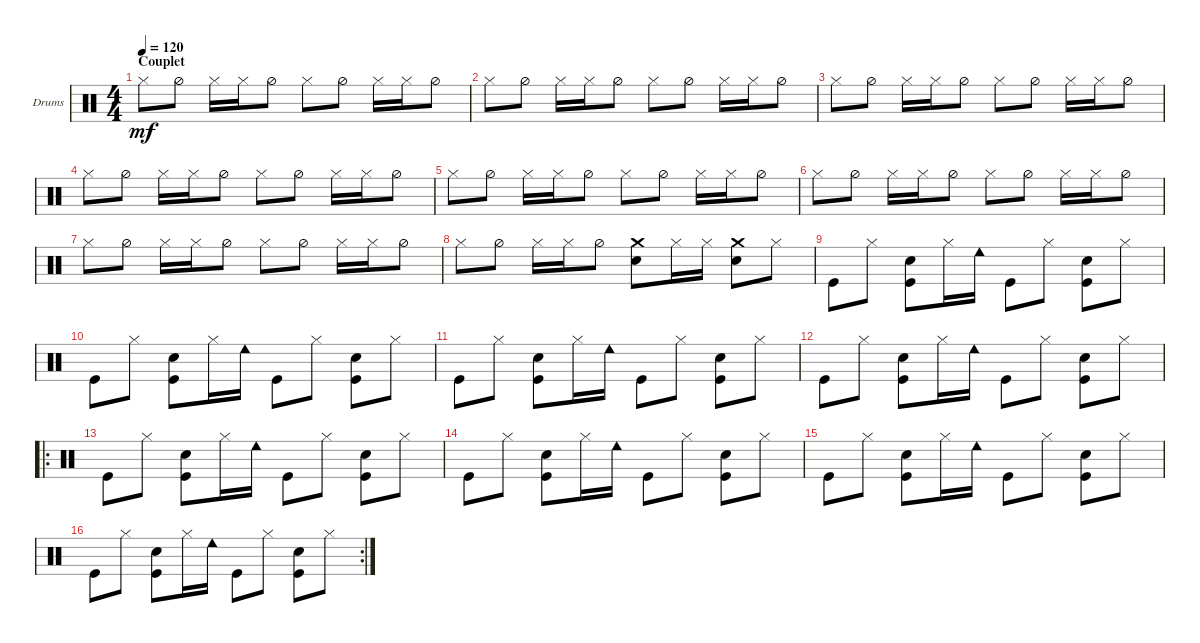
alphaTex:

\defaultSystemsLayout 4
\bracketExtendMode groupsimilarinstruments
\firstSystemTrackNameOrientation horizontal
\otherSystemsTrackNameOrientation horizontal
\track ("Drumkit" "Drums") {instrument percussion}
\staff {score}
\articulation defaults
\ts (4 4)
\section ("" "Couplet")
\tempo 120
\clef neutral
\ks c "Hi-Hat (closed)".8{dy mf} "Hi-Hat (half)".8 "Hi-Hat (closed)".16 "Hi-Hat (closed)".16 "Hi-Hat (half)".8 "Hi-Hat (closed)".8 "Hi-Hat (half)".8 "Hi-Hat (closed)".16 "Hi-Hat (closed)".16 "Hi-Hat (half)".8
|
"Hi-Hat (closed)".8 "Hi-Hat (half)".8 "Hi-Hat (closed)".16 "Hi-Hat (closed)".16 "Hi-Hat (half)".8 "Hi-Hat (closed)".8 "Hi-Hat (half)".8 "Hi-Hat (closed)".16 "Hi-Hat (closed)".16 "Hi-Hat (half)".8 |
"Hi-Hat (closed)".8 "Hi-Hat (half)".8 "Hi-Hat (closed)".16 "Hi-Hat (closed)".16 "Hi-Hat (half)".8 "Hi-Hat (closed)".8 "Hi-Hat (half)".8 "Hi-Hat (closed)".16 "Hi-Hat (closed)".16 "Hi-Hat (half)".8 |
"Hi-Hat (closed)".8 "Hi-Hat (half)".8 "Hi-Hat (closed)".16 "Hi-Hat (closed)".16 "Hi-Hat (half)".8 "Hi-Hat (closed)".8 "Hi-Hat (half)".8 "Hi-Hat (closed)".16 "Hi-Hat (closed)".16 "Hi-Hat (half)".8 |
"Hi-Hat (closed)".8 "Hi-Hat (half)".8 "Hi-Hat (closed)".16 "Hi-Hat (closed)".16 "Hi-Hat (half)".8 "Hi-Hat (closed)".8 "Hi-Hat (half)".8 "Hi-Hat (closed)".16 "Hi-Hat (closed)".16 "Hi-Hat (half)".8 |
"Hi-Hat (closed)".8 "Hi-Hat (half)".8 "Hi-Hat (closed)".16 "Hi-Hat (closed)".16 "Hi-Hat (half)".8 "Hi-Hat (closed)".8 "Hi-Hat (half)".8 "Hi-Hat (closed)".16 "Hi-Hat (closed)".16 "Hi-Hat (half)".8 |
"Hi-Hat (closed)".8 "Hi-Hat (half)".8 "Hi-Hat (closed)".16 "Hi-Hat (closed)".16 "Hi-Hat (half)".8 "Hi-Hat (closed)".8 "Hi-Hat (half)".8 "Hi-Hat (closed)".16 "Hi-Hat (closed)".16 "Hi-Hat (half)".8 |
"Hi-Hat (closed)".8 "Hi-Hat (half)".8 "Hi-Hat (closed)".16 "Hi-Hat (closed)".16 "Hi-Hat (half)".8 ("Snare (hit) 2" "Crash medium (hit)").8 "Hi-Hat (closed)".16 "Hi-Hat (closed)".16 ("Snare (hit) 2" "Crash medium (hit)").8 "Hi-Hat (closed)".8 |
"Kick (hit)".8 "Hi-Hat (closed)".8 ("Snare (hit) 2" "Kick (hit)").8 "Hi-Hat (closed)".16 "Cowbell low (hit)".16 "Kick (hit)".8 "Hi-Hat (closed)".8 ("Snare (hit) 2" "Kick (hit)").8 "Hi-Hat (closed)".8 |
"Kick (hit)".8 "Hi-Hat (closed)".8 ("Snare (hit) 2" "Kick (hit)").8 "Hi-Hat (closed)".16 "Cowbell low (hit)".16 "Kick (hit)".8 "Hi-Hat (closed)".8 ("Snare (hit) 2" "Kick (hit)").8 "Hi-Hat (closed)".8 |
"Kick (hit)".8 "Hi-Hat (closed)".8 ("Snare (hit) 2" "Kick (hit)").8 "Hi-Hat (closed)".16 "Cowbell low (hit)".16 "Kick (hit)".8 "Hi-Hat (closed)".8 ("Snare (hit) 2" "Kick (hit)").8 "Hi-Hat (closed)".8 |
"Kick (hit)".8 "Hi-Hat (closed)".8 ("Snare (hit) 2" "Kick (hit)").8 "Hi-Hat (closed)".16 "Cowbell low (hit)".16 "Kick (hit)".8 "Hi-Hat (closed)".8 ("Snare (hit) 2" "Kick (hit)").8 "Hi-Hat (closed)".8 |
\ro "Kick (hit)".8 "Hi-Hat (closed)".8
("Snare (hit) 2" "Kick (hit)").8 "Hi-Hat (closed)".16 "Cowbell low (hit)".16 "Kick (hit)".8 "Hi-Hat (closed)".8 ("Snare (hit) 2" "Kick (hit)").8 "Hi-Hat (closed)".8 |
"Kick (hit)".8 "Hi-Hat (closed)".8 ("Snare (hit) 2" "Kick (hit)").8 "Hi-Hat (closed)".16 "Cowbell low (hit)".16 "Kick (hit)".8 "Hi-Hat (closed)".8 ("Snare (hit) 2" "Kick (hit)").8 "Hi-Hat (closed)".8 |
"Kick (hit)".8 "Hi-Hat (closed)".8 ("Snare (hit) 2" "Kick (hit)").8 "Hi-Hat (closed)".16 "Cowbell low (hit)".16 "Kick (hit)".8 "Hi-Hat (closed)".8 ("Snare (hit) 2" "Kick (hit)").8 "Hi-Hat (closed)".8 |
\rc 2 "Kick (hit)".8 "Hi-Hat (closed)".8
("Snare (hit) 2" "Kick (hit)").8 "Hi-Hat (closed)".16 "Cowbell low (hit)".16 "Kick (hit)".8 "Hi-Hat (closed)".8 ("Snare (hit) 2" "Kick (hit)").8 "Hi-Hat (closed)".8
